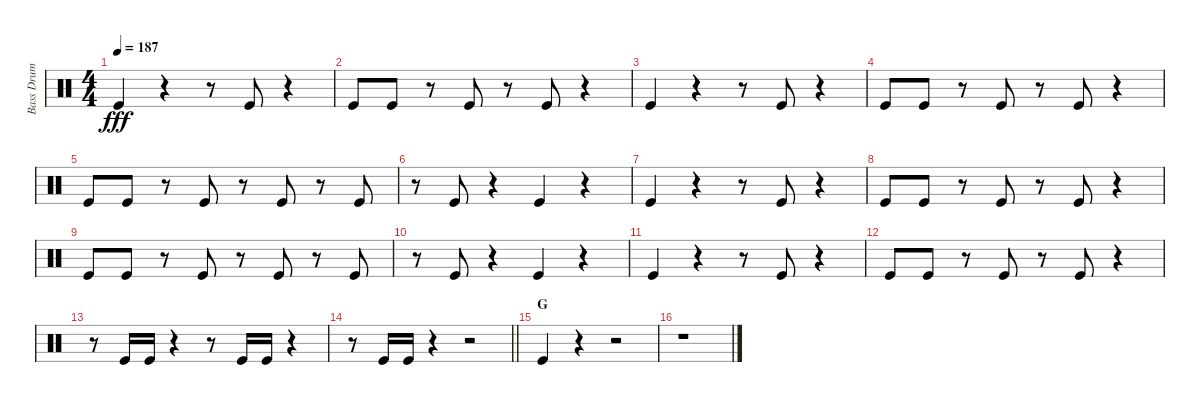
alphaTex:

\track ("Bass Drum" "Bass Drum") {instrument percussion}
\staff {score}
\articulation defaults
\ts (4 4)
\tempo 187
\clef neutral
\ks c "Kick (hit)".4{dy fff}
r.4 r.8 "Kick (hit)".8 r.4 |
"Kick (hit)".8 "Kick (hit)".8 r.8 "Kick (hit)".8 r.8 "Kick (hit)".8 r.4 |
"Kick (hit)".4 r.4 r.8 "Kick (hit)".8 r.4 |
"Kick (hit)".8 "Kick (hit)".8 r.8 "Kick (hit)".8 r.8 "Kick (hit)".8 r.4 |
"Kick (hit)".8 "Kick (hit)".8 r.8 "Kick (hit)".8 r.8 "Kick (hit)".8 r.8 "Kick (hit)".8 |
r.8 "Kick (hit)".8 r.4 "Kick (hit)".4 r.4 |
"Kick (hit)".4 r.4 r.8 "Kick (hit)".8 r.4 |
"Kick (hit)".8 "Kick (hit)".8 r.8 "Kick (hit)".8 r.8 "Kick (hit)".8 r.4 |
"Kick (hit)".8 "Kick (hit)".8 r.8 "Kick (hit)".8 r.8 "Kick (hit)".8 r.8 "Kick (hit)".8 |
r.8 "Kick (hit)".8 r.4 "Kick (hit)".4 r.4 |
"Kick (hit)".4 r.4 r.8 "Kick (hit)".8 r.4 |
"Kick (hit)".8 "Kick (hit)".8 r.8 "Kick (hit)".8 r.8 "Kick (hit)".8 r.4 |
r.8 "Kick (hit)".16 "Kick (hit)".16 r.4 r.8 "Kick (hit)".16 "Kick (hit)".16 r.4 |
\barLineRight lightlight
r.8 "Kick (hit)".16 "Kick (hit)".16 r.4 r.2 |
\section ("" "G")
"Kick (hit)".4 r.4 r.2 |
r.1
